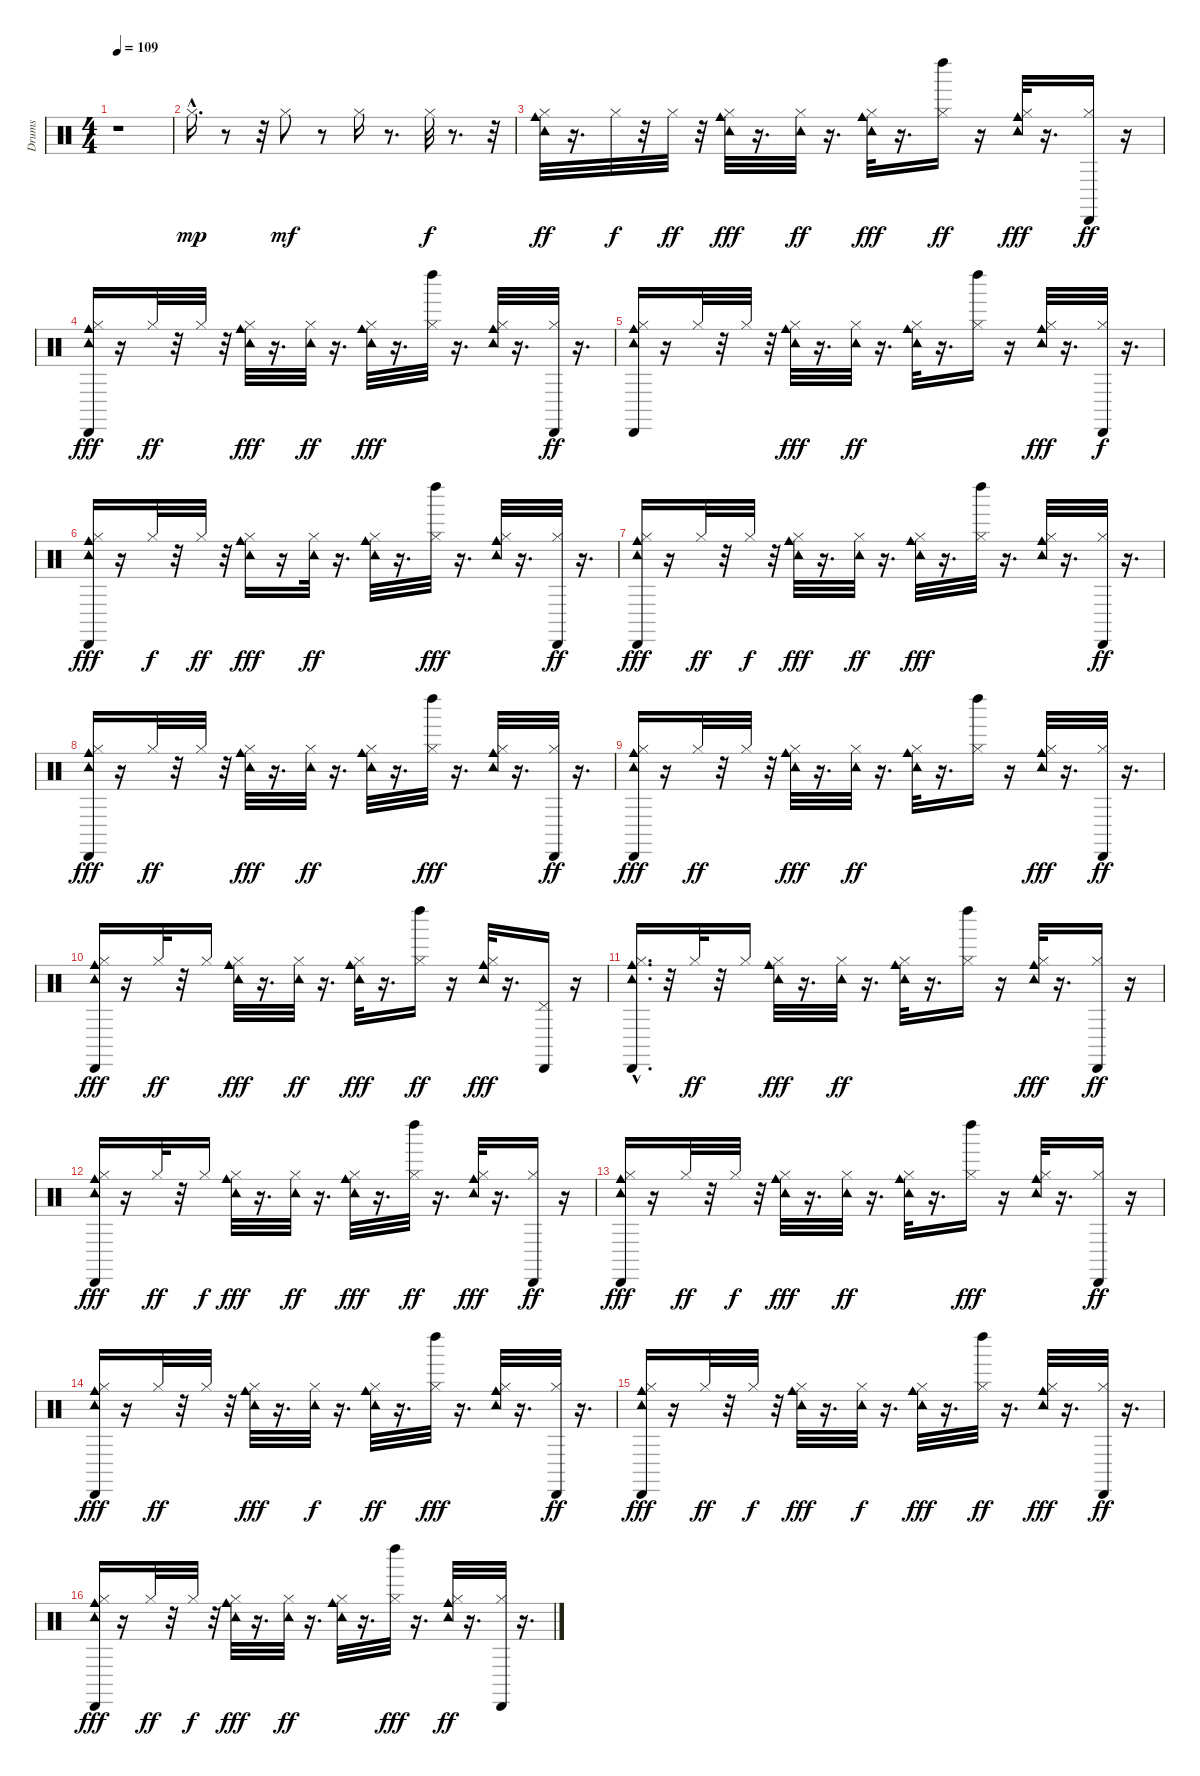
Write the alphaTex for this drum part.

\track ("Drums   " "Drums   ") {instrument percussion}
\staff {score}
\articulation defaults
\ts (4 4)
\tempo 109
\clef neutral
\ks c
r.1{dy mp} |
"Hi-Hat (closed)"{hac}.16{d} r.8 r.32 "Hi-Hat (closed)".8{dy mf} r.8 "Hi-Hat (closed)".16 r.8{d} "Hi-Hat (closed)".32{dy f} r.8{d} r.32 |
("Hi-Hat (closed)" "Cowbell medium (hit)" "Tambourine (hit)").32{dy ff} r.16{d} "Hi-Hat (closed)".32{dy f} r.32 "Hi-Hat (closed)".32{dy ff} r.32 ("Hi-Hat (closed)" "Tambourine (hit)" "Cowbell medium (hit)").32{dy fff} r.16{d} ("Hi-Hat (closed)" "Tambourine (hit)").32{dy ff} r.16{d} ("Hi-Hat (closed)" "Cowbell medium (hit)" "Tambourine (hit)").32{dy fff} r.16{d} ("Hi-Hat (closed)" "Left Maraca (hit)").16{dy ff} r.16 ("Hi-Hat (closed)" "Tambourine (hit)" "Cowbell medium (hit)").32{dy fff} r.16{d} ("Hi-Hat (closed)" "Cabasa (hit)").16{dy ff} r.16 |
("Cowbell medium (hit)" "Hi-Hat (closed)" "Tambourine (hit)" "Cabasa (hit)").16{dy fff} r.16 "Hi-Hat (closed)".32{dy ff} r.32 "Hi-Hat (closed)".32 r.32 ("Hi-Hat (closed)" "Tambourine (hit)" "Cowbell medium (hit)").32{dy fff} r.16{d} ("Hi-Hat (closed)" "Tambourine (hit)").32{dy ff} r.16{d} ("Hi-Hat (closed)" "Cowbell medium (hit)" "Tambourine (hit)").32{dy fff} r.16{d} ("Hi-Hat (closed)" "Left Maraca (hit)").32 r.16{d} ("Hi-Hat (closed)" "Tambourine (hit)" "Cowbell medium (hit)").32 r.16{d} ("Hi-Hat (closed)" "Cabasa (hit)").32{dy ff} r.16{d} |
("Hi-Hat (closed)" "Tambourine (hit)" "Cowbell medium (hit)" "Cabasa (hit)").16 r.16 "Hi-Hat (closed)".32 r.32 "Hi-Hat (closed)".32 r.32 ("Hi-Hat (closed)" "Tambourine (hit)" "Cowbell medium (hit)").32{dy fff} r.16{d} ("Hi-Hat (closed)" "Tambourine (hit)").32{dy ff} r.16{d} ("Cowbell medium (hit)" "Hi-Hat (closed)" "Tambourine (hit)").32 r.16{d} ("Hi-Hat (closed)" "Left Maraca (hit)").16 r.16 ("Hi-Hat (closed)" "Tambourine (hit)" "Cowbell medium (hit)").32{dy fff} r.16{d} ("Hi-Hat (closed)" "Cabasa (hit)").32{dy f} r.16{d} |
("Cowbell medium (hit)" "Hi-Hat (closed)" "Tambourine (hit)" "Cabasa (hit)").16{dy fff} r.16 "Hi-Hat (closed)".32{dy f} r.32 "Hi-Hat (closed)".32{dy ff} r.32 ("Hi-Hat (closed)" "Cowbell medium (hit)" "Tambourine (hit)").16{dy fff} r.16 ("Hi-Hat (closed)" "Tambourine (hit)").32{dy ff} r.16{d} ("Cowbell medium (hit)" "Hi-Hat (closed)" "Tambourine (hit)").32 r.16{d} ("Hi-Hat (closed)" "Left Maraca (hit)").32{dy fff} r.16{d} ("Hi-Hat (closed)" "Tambourine (hit)" "Cowbell medium (hit)").32 r.16{d} ("Hi-Hat (closed)" "Cabasa (hit)").32{dy ff} r.16{d} |
("Hi-Hat (closed)" "Cowbell medium (hit)" "Tambourine (hit)" "Cabasa (hit)").16{dy fff} r.16 "Hi-Hat (closed)".32{dy ff} r.32 "Hi-Hat (closed)".32{dy f} r.32 ("Hi-Hat (closed)" "Tambourine (hit)" "Cowbell medium (hit)").32{dy fff} r.16{d} ("Hi-Hat (closed)" "Tambourine (hit)").32{dy ff} r.16{d} ("Hi-Hat (closed)" "Cowbell medium (hit)" "Tambourine (hit)").32{dy fff} r.16{d} ("Hi-Hat (closed)" "Left Maraca (hit)").32 r.16{d} ("Hi-Hat (closed)" "Tambourine (hit)" "Cowbell medium (hit)").32 r.16{d} ("Hi-Hat (closed)" "Cabasa (hit)").32{dy ff} r.16{d} |
("Hi-Hat (closed)" "Cowbell medium (hit)" "Tambourine (hit)" "Cabasa (hit)").16{dy fff} r.16 "Hi-Hat (closed)".32{dy ff} r.32 "Hi-Hat (closed)".32 r.32 ("Hi-Hat (closed)" "Tambourine (hit)" "Cowbell medium (hit)").32{dy fff} r.16{d} ("Hi-Hat (closed)" "Tambourine (hit)").32{dy ff} r.16{d} ("Hi-Hat (closed)" "Cowbell medium (hit)" "Tambourine (hit)").32 r.16{d} ("Hi-Hat (closed)" "Left Maraca (hit)").32{dy fff} r.16{d} ("Hi-Hat (closed)" "Tambourine (hit)" "Cowbell medium (hit)").32 r.16{d} ("Hi-Hat (closed)" "Cabasa (hit)").32{dy ff} r.16{d} |
("Hi-Hat (closed)" "Cowbell medium (hit)" "Tambourine (hit)" "Cabasa (hit)").16{dy fff} r.16 "Hi-Hat (closed)".32{dy ff} r.32 "Hi-Hat (closed)".32 r.32 ("Hi-Hat (closed)" "Tambourine (hit)" "Cowbell medium (hit)").32{dy fff} r.16{d} ("Hi-Hat (closed)" "Tambourine (hit)").32{dy ff} r.16{d} ("Hi-Hat (closed)" "Cowbell medium (hit)" "Tambourine (hit)").32 r.16{d} ("Hi-Hat (closed)" "Left Maraca (hit)").16 r.16 ("Hi-Hat (closed)" "Tambourine (hit)" "Cowbell medium (hit)").32{dy fff} r.16{d} ("Hi-Hat (closed)" "Cabasa (hit)").32{dy ff} r.16{d} |
("Cowbell medium (hit)" "Hi-Hat (closed)" "Tambourine (hit)" "Cabasa (hit)").16{dy fff} r.16 "Hi-Hat (closed)".32{dy ff} r.32 "Hi-Hat (closed)".16 ("Hi-Hat (closed)" "Tambourine (hit)" "Cowbell medium (hit)").32{dy fff} r.16{d} ("Hi-Hat (closed)" "Tambourine (hit)").32{dy ff} r.16{d} ("Hi-Hat (closed)" "Cowbell medium (hit)" "Tambourine (hit)").32{dy fff} r.16{d} ("Hi-Hat (closed)" "Left Maraca (hit)").16{dy ff} r.16 ("Hi-Hat (closed)" "Tambourine (hit)" "Cowbell medium (hit)").32{dy fff} r.16{d} ("Pedal Hi-Hat (hit)" "Cabasa (hit)").16 r.16 |
("Hi-Hat (closed)"{hac} "Cowbell medium (hit)"{hac} "Tambourine (hit)"{hac} "Cabasa (hit)"{hac}).16{d} r.32 "Hi-Hat (closed)".32{dy ff} r.32 "Hi-Hat (closed)".16 ("Hi-Hat (closed)" "Tambourine (hit)" "Cowbell medium (hit)").32{dy fff} r.16{d} ("Hi-Hat (closed)" "Tambourine (hit)").32{dy ff} r.16{d} ("Cowbell medium (hit)" "Hi-Hat (closed)" "Tambourine (hit)").32 r.16{d} ("Hi-Hat (closed)" "Left Maraca (hit)").16 r.16 ("Hi-Hat (closed)" "Tambourine (hit)" "Cowbell medium (hit)").32{dy fff} r.16{d} ("Hi-Hat (closed)" "Cabasa (hit)").16{dy ff} r.16 |
("Hi-Hat (closed)" "Cowbell medium (hit)" "Tambourine (hit)" "Cabasa (hit)").16{dy fff} r.16 "Hi-Hat (closed)".32{dy ff} r.32 "Hi-Hat (closed)".16{dy f} ("Hi-Hat (closed)" "Tambourine (hit)" "Cowbell medium (hit)").32{dy fff} r.16{d} ("Hi-Hat (closed)" "Tambourine (hit)").32{dy ff} r.16{d} ("Hi-Hat (closed)" "Cowbell medium (hit)" "Tambourine (hit)").32{dy fff} r.16{d} ("Hi-Hat (closed)" "Left Maraca (hit)").32{dy ff} r.16{d} ("Hi-Hat (closed)" "Tambourine (hit)" "Cowbell medium (hit)").32{dy fff} r.16{d} ("Hi-Hat (closed)" "Cabasa (hit)").16{dy ff} r.16 |
("Hi-Hat (closed)" "Cowbell medium (hit)" "Tambourine (hit)" "Cabasa (hit)").16{dy fff} r.16 "Hi-Hat (closed)".32{dy ff} r.32 "Hi-Hat (closed)".32{dy f} r.32 ("Hi-Hat (closed)" "Cowbell medium (hit)" "Tambourine (hit)").32{dy fff} r.16{d} ("Hi-Hat (closed)" "Tambourine (hit)").32{dy ff} r.16{d} ("Cowbell medium (hit)" "Hi-Hat (closed)" "Tambourine (hit)").32 r.16{d} ("Hi-Hat (closed)" "Left Maraca (hit)").16{dy fff} r.16 ("Hi-Hat (closed)" "Tambourine (hit)" "Cowbell medium (hit)").32 r.16{d} ("Hi-Hat (closed)" "Cabasa (hit)").16{dy ff} r.16 |
("Hi-Hat (closed)" "Tambourine (hit)" "Cowbell medium (hit)" "Cabasa (hit)").16{dy fff} r.16 "Hi-Hat (closed)".32{dy ff} r.32 "Hi-Hat (closed)".32 r.32 ("Hi-Hat (closed)" "Cowbell medium (hit)" "Tambourine (hit)").32{dy fff} r.16{d} ("Hi-Hat (closed)" "Tambourine (hit)").32{dy f} r.16{d} ("Hi-Hat (closed)" "Cowbell medium (hit)" "Tambourine (hit)").32{dy ff} r.16{d} ("Hi-Hat (closed)" "Left Maraca (hit)").32{dy fff} r.16{d} ("Hi-Hat (closed)" "Cowbell medium (hit)" "Tambourine (hit)").32 r.16{d} ("Hi-Hat (closed)" "Cabasa (hit)").32{dy ff} r.16{d} |
("Hi-Hat (closed)" "Cowbell medium (hit)" "Tambourine (hit)" "Cabasa (hit)").16{dy fff} r.16 "Hi-Hat (closed)".32{dy ff} r.32 "Hi-Hat (closed)".32{dy f} r.32 ("Hi-Hat (closed)" "Tambourine (hit)" "Cowbell medium (hit)").32{dy fff} r.16{d} ("Hi-Hat (closed)" "Tambourine (hit)").32{dy f} r.16{d} ("Hi-Hat (closed)" "Cowbell medium (hit)" "Tambourine (hit)").32{dy fff} r.16{d} ("Hi-Hat (closed)" "Left Maraca (hit)").32{dy ff} r.16{d} ("Hi-Hat (closed)" "Tambourine (hit)" "Cowbell medium (hit)").32{dy fff} r.16{d} ("Hi-Hat (closed)" "Cabasa (hit)").32{dy ff} r.16{d} |
("Hi-Hat (closed)" "Tambourine (hit)" "Cowbell medium (hit)" "Cabasa (hit)").16{dy fff} r.16 "Hi-Hat (closed)".32{dy ff} r.32 "Hi-Hat (closed)".32{dy f} r.32 ("Hi-Hat (closed)" "Tambourine (hit)" "Cowbell medium (hit)").32{dy fff} r.16{d} ("Hi-Hat (closed)" "Tambourine (hit)").32{dy ff} r.16{d} ("Hi-Hat (closed)" "Cowbell medium (hit)" "Tambourine (hit)").32 r.16{d} ("Hi-Hat (closed)" "Left Maraca (hit)").32{dy fff} r.16{d} ("Cowbell medium (hit)" "Hi-Hat (closed)" "Tambourine (hit)").32{dy ff} r.16{d} ("Hi-Hat (closed)" "Cabasa (hit)").32 r.16{d}
